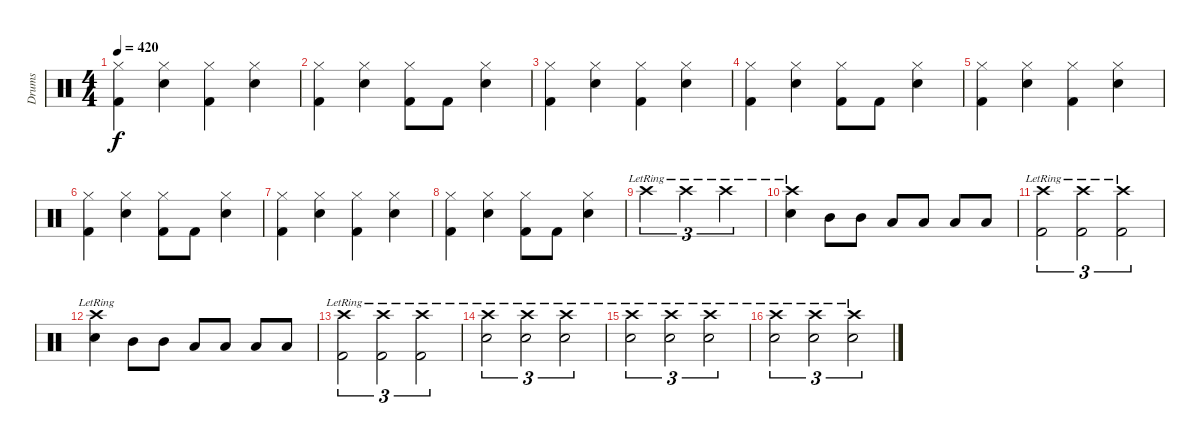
\track ("Drums" "Drums") {instrument percussion}
\staff {score}
\articulation defaults
\ts (4 4)
\tempo 420
\clef neutral
\ks c
("Hi-Hat (closed)" "Kick (hit) 2").4{dy f} ("Hi-Hat (closed)" "Snare (hit) 2").4 ("Hi-Hat (closed)" "Kick (hit) 2").4 ("Hi-Hat (closed)" "Snare (hit) 2").4 |
("Hi-Hat (closed)" "Kick (hit) 2").4 ("Hi-Hat (closed)" "Snare (hit) 2").4 ("Hi-Hat (closed)" "Kick (hit) 2").8 "Kick (hit) 2".8 ("Hi-Hat (closed)" "Snare (hit) 2").4 |
("Hi-Hat (closed)" "Kick (hit) 2").4 ("Hi-Hat (closed)" "Snare (hit) 2").4 ("Hi-Hat (closed)" "Kick (hit) 2").4 ("Hi-Hat (closed)" "Snare (hit) 2").4 |
("Hi-Hat (closed)" "Kick (hit) 2").4 ("Hi-Hat (closed)" "Snare (hit) 2").4 ("Hi-Hat (closed)" "Kick (hit) 2").8 "Kick (hit) 2".8 ("Hi-Hat (closed)" "Snare (hit) 2").4 |
("Hi-Hat (closed)" "Kick (hit) 2").4 ("Hi-Hat (closed)" "Snare (hit) 2").4 ("Hi-Hat (closed)" "Kick (hit) 2").4 ("Hi-Hat (closed)" "Snare (hit) 2").4 |
("Hi-Hat (closed)" "Kick (hit) 2").4 ("Hi-Hat (closed)" "Snare (hit) 2").4 ("Hi-Hat (closed)" "Kick (hit) 2").8 "Kick (hit) 2".8 ("Hi-Hat (closed)" "Snare (hit) 2").4 |
("Hi-Hat (closed)" "Kick (hit) 2").4 ("Hi-Hat (closed)" "Snare (hit) 2").4 ("Hi-Hat (closed)" "Kick (hit) 2").4 ("Hi-Hat (closed)" "Snare (hit) 2").4 |
("Hi-Hat (closed)" "Kick (hit) 2").4 ("Hi-Hat (closed)" "Snare (hit) 2").4 ("Hi-Hat (closed)" "Kick (hit) 2").8 "Kick (hit) 2".8 ("Hi-Hat (closed)" "Snare (hit) 2").4 |
"Crash high (hit)"{lr}.2{tu (3 2)} "Crash high (hit)"{lr}.2{tu (3 2)} "Crash high (hit)"{lr}.2{tu (3 2)} |
("Crash high (hit)"{lr} "Snare (hit) 2").4 "Mid Tom (hit)".8 "Mid Tom (hit)".8 "Low Tom (hit)".8 "Low Tom (hit)".8 "Low Tom (hit)".8 "Low Tom (hit)".8 |
("Crash high (hit)"{lr} "Kick (hit) 2").2{tu (3 2)} ("Crash high (hit)"{lr} "Kick (hit) 2").2{tu (3 2)} ("Crash high (hit)"{lr} "Kick (hit) 2").2{tu (3 2)} |
("Crash high (hit)"{lr} "Snare (hit) 2").4 "Mid Tom (hit)".8 "Mid Tom (hit)".8 "Low Tom (hit)".8 "Low Tom (hit)".8 "Low Tom (hit)".8 "Low Tom (hit)".8 |
("Crash high (hit)"{lr} "Kick (hit) 2").2{tu (3 2)} ("Crash high (hit)"{lr} "Kick (hit) 2").2{tu (3 2)} ("Crash high (hit)"{lr} "Kick (hit) 2").2{tu (3 2)} |
("Crash high (hit)"{lr} "Snare (hit) 2").2{tu (3 2)} ("Crash high (hit)"{lr} "Snare (hit) 2").2{tu (3 2)} ("Crash high (hit)"{lr} "Snare (hit) 2").2{tu (3 2)} |
("Crash high (hit)"{lr} "Snare (hit) 2").2{tu (3 2)} ("Crash high (hit)"{lr} "Snare (hit) 2").2{tu (3 2)} ("Crash high (hit)"{lr} "Snare (hit) 2").2{tu (3 2)} |
("Crash high (hit)"{lr} "Snare (hit) 2").2{tu (3 2)} ("Crash high (hit)"{lr} "Snare (hit) 2").2{tu (3 2)} ("Crash high (hit)"{lr} "Snare (hit) 2").2{tu (3 2)}
